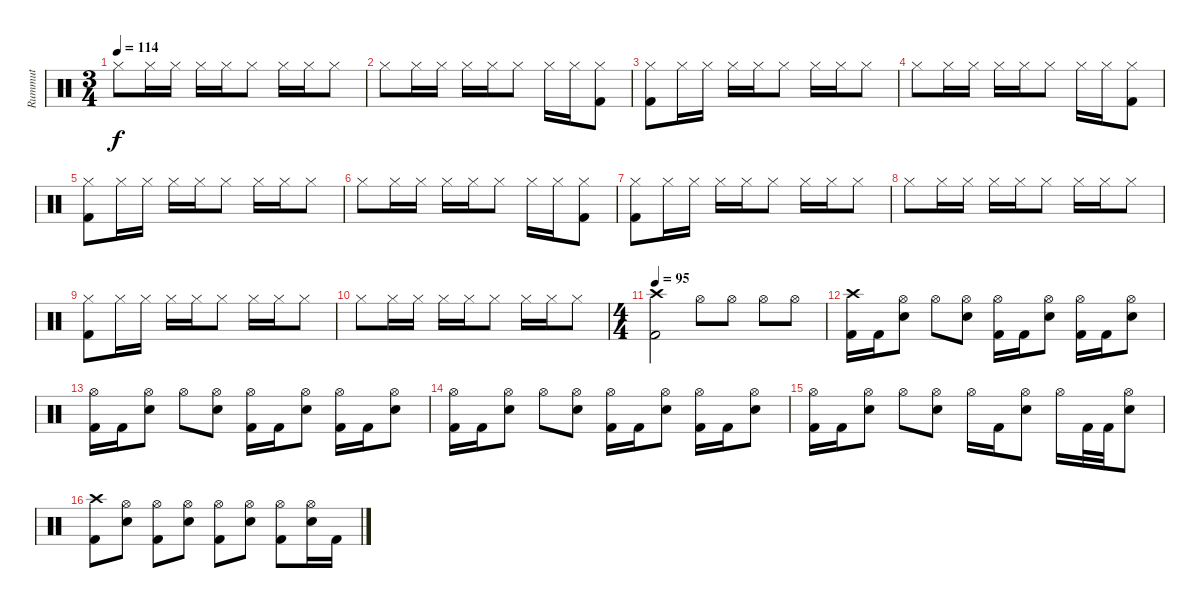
\track ("Rummut" "Rummut") {instrument percussion}
\staff {score}
\articulation defaults
\ts (3 4)
\tempo 114
\clef neutral
\ks c "Hi-Hat (closed)".8{dy f} "Hi-Hat (closed)".16 "Hi-Hat (closed)".16 "Hi-Hat (closed)".16 "Hi-Hat (closed)".16 "Hi-Hat (closed)".8 "Hi-Hat (closed)".16 "Hi-Hat (closed)".16 "Hi-Hat (closed)".8
|
"Hi-Hat (closed)".8 "Hi-Hat (closed)".16 "Hi-Hat (closed)".16 "Hi-Hat (closed)".16 "Hi-Hat (closed)".16 "Hi-Hat (closed)".8 "Hi-Hat (closed)".16 "Hi-Hat (closed)".16 ("Hi-Hat (closed)" "Kick (hit) 2").8 |
("Hi-Hat (closed)" "Kick (hit) 2").8 "Hi-Hat (closed)".16 "Hi-Hat (closed)".16 "Hi-Hat (closed)".16 "Hi-Hat (closed)".16 "Hi-Hat (closed)".8 "Hi-Hat (closed)".16 "Hi-Hat (closed)".16 "Hi-Hat (closed)".8 |
"Hi-Hat (closed)".8 "Hi-Hat (closed)".16 "Hi-Hat (closed)".16 "Hi-Hat (closed)".16 "Hi-Hat (closed)".16 "Hi-Hat (closed)".8 "Hi-Hat (closed)".16 "Hi-Hat (closed)".16 ("Hi-Hat (closed)" "Kick (hit) 2").8 |
("Hi-Hat (closed)" "Kick (hit) 2").8 "Hi-Hat (closed)".16 "Hi-Hat (closed)".16 "Hi-Hat (closed)".16 "Hi-Hat (closed)".16 "Hi-Hat (closed)".8 "Hi-Hat (closed)".16 "Hi-Hat (closed)".16 "Hi-Hat (closed)".8 |
"Hi-Hat (closed)".8 "Hi-Hat (closed)".16 "Hi-Hat (closed)".16 "Hi-Hat (closed)".16 "Hi-Hat (closed)".16 "Hi-Hat (closed)".8 "Hi-Hat (closed)".16 "Hi-Hat (closed)".16 ("Hi-Hat (closed)" "Kick (hit) 2").8 |
("Hi-Hat (closed)" "Kick (hit) 2").8 "Hi-Hat (closed)".16 "Hi-Hat (closed)".16 "Hi-Hat (closed)".16 "Hi-Hat (closed)".16 "Hi-Hat (closed)".8 "Hi-Hat (closed)".16 "Hi-Hat (closed)".16 "Hi-Hat (closed)".8 |
"Hi-Hat (closed)".8 "Hi-Hat (closed)".16 "Hi-Hat (closed)".16 "Hi-Hat (closed)".16 "Hi-Hat (closed)".16 "Hi-Hat (closed)".8 "Hi-Hat (closed)".16 "Hi-Hat (closed)".16 "Hi-Hat (closed)".8 |
("Hi-Hat (closed)" "Kick (hit) 2").8 "Hi-Hat (closed)".16 "Hi-Hat (closed)".16 "Hi-Hat (closed)".16 "Hi-Hat (closed)".16 "Hi-Hat (closed)".8 "Hi-Hat (closed)".16 "Hi-Hat (closed)".16 "Hi-Hat (closed)".8 |
"Hi-Hat (closed)".8 "Hi-Hat (closed)".16 "Hi-Hat (closed)".16 "Hi-Hat (closed)".16 "Hi-Hat (closed)".16 "Hi-Hat (closed)".8 "Hi-Hat (closed)".16 "Hi-Hat (closed)".16 "Hi-Hat (closed)".8 |
\ts (4 4)
\tempo 95
("Crash high (hit)" "Kick (hit) 2").2 "Hi-Hat (open)".8 "Hi-Hat (open)".8 "Hi-Hat (open)".8 "Hi-Hat (open)".8 |
("Crash high (hit)" "Kick (hit) 2").16 "Kick (hit) 2".16 ("Hi-Hat (open)" "Snare (hit) 2").8 "Hi-Hat (open)".8 ("Hi-Hat (open)" "Snare (hit) 2").8 ("Hi-Hat (open)" "Kick (hit) 2").16 "Kick (hit) 2".16 ("Hi-Hat (open)" "Snare (hit) 2").8 ("Hi-Hat (open)" "Kick (hit) 2").16 "Kick (hit) 2".16 ("Hi-Hat (open)" "Snare (hit) 2").8 |
("Hi-Hat (open)" "Kick (hit) 2").16 "Kick (hit) 2".16 ("Hi-Hat (open)" "Snare (hit) 2").8 "Hi-Hat (open)".8 ("Hi-Hat (open)" "Snare (hit) 2").8 ("Hi-Hat (open)" "Kick (hit) 2").16 "Kick (hit) 2".16 ("Hi-Hat (open)" "Snare (hit) 2").8 ("Hi-Hat (open)" "Kick (hit) 2").16 "Kick (hit) 2".16 ("Hi-Hat (open)" "Snare (hit) 2").8 |
("Hi-Hat (open)" "Kick (hit) 2").16 "Kick (hit) 2".16 ("Hi-Hat (open)" "Snare (hit) 2").8 "Hi-Hat (open)".8 ("Hi-Hat (open)" "Snare (hit) 2").8 ("Hi-Hat (open)" "Kick (hit) 2").16 "Kick (hit) 2".16 ("Hi-Hat (open)" "Snare (hit) 2").8 ("Hi-Hat (open)" "Kick (hit) 2").16 "Kick (hit) 2".16 ("Hi-Hat (open)" "Snare (hit) 2").8 |
("Hi-Hat (open)" "Kick (hit) 2").16 "Kick (hit) 2".16 ("Hi-Hat (open)" "Snare (hit) 2").8 "Hi-Hat (open)".8 ("Hi-Hat (open)" "Snare (hit) 2").8 "Hi-Hat (open)".16 "Kick (hit) 2".16 ("Hi-Hat (open)" "Snare (hit) 2").8 "Hi-Hat (open)".16 "Kick (hit) 2".32 "Kick (hit) 2".32 ("Hi-Hat (open)" "Snare (hit) 2").8 |
("Crash high (hit)" "Kick (hit) 2").8 ("Hi-Hat (open)" "Snare (hit) 2").8 ("Hi-Hat (open)" "Kick (hit) 2").8 ("Hi-Hat (open)" "Snare (hit) 2").8 ("Hi-Hat (open)" "Kick (hit) 2").8 ("Hi-Hat (open)" "Snare (hit) 2").8 ("Hi-Hat (open)" "Kick (hit) 2").8 ("Hi-Hat (open)" "Snare (hit) 2").16 "Kick (hit) 2".16
